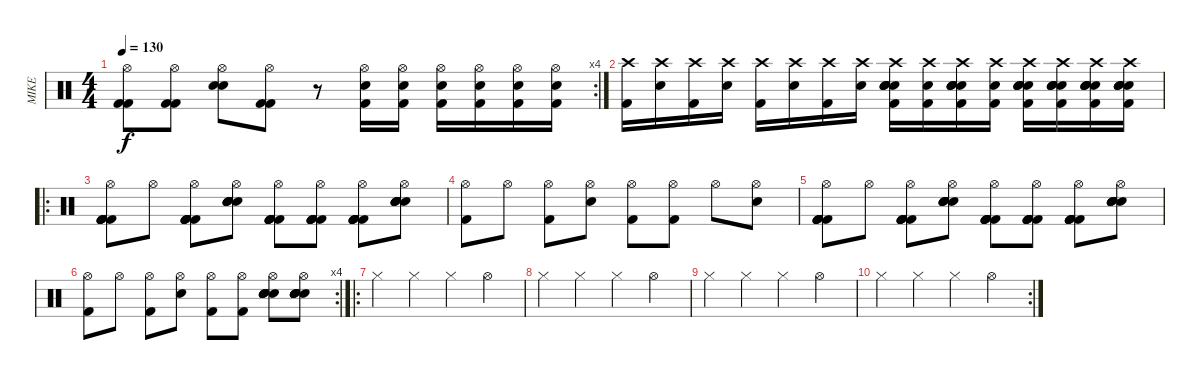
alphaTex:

\track ("MIKE" "MIKE") {instrument percussion}
\staff {score}
\articulation defaults
\rc 4
\ts (4 4)
\tempo 130
\clef neutral
\ks c
("Hi-Hat (open)" "Kick (hit) 2" "Kick (hit) 2").8{dy f} ("Hi-Hat (open)" "Kick (hit) 2" "Kick (hit) 2").8 ("Hi-Hat (open)" "Electric Snare (hit)" "Electric Snare (hit)").8 ("Hi-Hat (open)" "Kick (hit) 2" "Kick (hit) 2").8 r.8 ("Hi-Hat (open)" "Kick (hit) 2" "Electric Snare (hit)").16 ("Hi-Hat (open)" "Kick (hit) 2" "Electric Snare (hit)").16 ("Hi-Hat (open)" "Kick (hit) 2" "Electric Snare (hit)").16 ("Hi-Hat (open)" "Kick (hit) 2" "Electric Snare (hit)").16 ("Hi-Hat (open)" "Kick (hit) 2" "Electric Snare (hit)").16 ("Hi-Hat (open)" "Kick (hit) 2" "Electric Snare (hit)").16 |
("Crash high (hit)" "Kick (hit) 2").16 ("Crash high (hit)" "Electric Snare (hit)").16 ("Crash high (hit)" "Kick (hit) 2").16 ("Crash high (hit)" "Electric Snare (hit)").16 ("Crash high (hit)" "Kick (hit) 2").16 ("Crash high (hit)" "Electric Snare (hit)").16 ("Crash high (hit)" "Kick (hit) 2").16 ("Crash high (hit)" "Electric Snare (hit)").16 ("Electric Snare (hit)" "Electric Snare (hit)" "Electric Snare (hit)" "Crash high (hit)" "Kick (hit) 2" "Electric Snare (hit)").16 ("Crash high (hit)" "Kick (hit) 2" "Electric Snare (hit)").16 ("Electric Snare (hit)" "Electric Snare (hit)" "Electric Snare (hit)" "Crash high (hit)" "Kick (hit) 2" "Electric Snare (hit)").16 ("Crash high (hit)" "Kick (hit) 2" "Electric Snare (hit)").16 ("Electric Snare (hit)" "Electric Snare (hit)" "Electric Snare (hit)" "Crash high (hit)" "Kick (hit) 2" "Electric Snare (hit)").16 ("Electric Snare (hit)" "Electric Snare (hit)" "Electric Snare (hit)" "Crash high (hit)" "Kick (hit) 2" "Electric Snare (hit)").16 ("Electric Snare (hit)" "Electric Snare (hit)" "Electric Snare (hit)" "Crash high (hit)" "Kick (hit) 2" "Electric Snare (hit)").16 ("Electric Snare (hit)" "Electric Snare (hit)" "Electric Snare (hit)" "Crash high (hit)" "Kick (hit) 2" "Electric Snare (hit)").16 |
\ro
("Kick (hit) 2" "Kick (hit) 2" "Kick (hit) 2" "Kick (hit) 2" "Kick (hit) 2" "Hi-Hat (open)").8 "Hi-Hat (open)".8 ("Kick (hit) 2" "Kick (hit) 2" "Kick (hit) 2" "Kick (hit) 2" "Kick (hit) 2" "Hi-Hat (open)").8 ("Electric Snare (hit)" "Electric Snare (hit)" "Electric Snare (hit)" "Electric Snare (hit)" "Electric Snare (hit)" "Hi-Hat (open)").8 ("Kick (hit) 2" "Kick (hit) 2" "Kick (hit) 2" "Kick (hit) 2" "Kick (hit) 2" "Hi-Hat (open)").8 ("Kick (hit) 2" "Kick (hit) 2" "Kick (hit) 2" "Kick (hit) 2" "Kick (hit) 2" "Hi-Hat (open)").8 ("Kick (hit) 2" "Kick (hit) 2" "Kick (hit) 2" "Kick (hit) 2" "Kick (hit) 2" "Hi-Hat (open)").8 ("Electric Snare (hit)" "Electric Snare (hit)" "Electric Snare (hit)" "Electric Snare (hit)" "Electric Snare (hit)" "Hi-Hat (open)").8 |
("Kick (hit) 2" "Hi-Hat (open)").8 "Hi-Hat (open)".8 ("Kick (hit) 2" "Hi-Hat (open)").8 ("Electric Snare (hit)" "Hi-Hat (open)").8 ("Kick (hit) 2" "Hi-Hat (open)").8 ("Kick (hit) 2" "Hi-Hat (open)").8 "Hi-Hat (open)".8 ("Electric Snare (hit)" "Hi-Hat (open)").8 |
("Kick (hit) 2" "Kick (hit) 2" "Kick (hit) 2" "Kick (hit) 2" "Kick (hit) 2" "Hi-Hat (open)").8 "Hi-Hat (open)".8 ("Kick (hit) 2" "Kick (hit) 2" "Kick (hit) 2" "Kick (hit) 2" "Kick (hit) 2" "Hi-Hat (open)").8 ("Electric Snare (hit)" "Electric Snare (hit)" "Electric Snare (hit)" "Electric Snare (hit)" "Electric Snare (hit)" "Hi-Hat (open)").8 ("Kick (hit) 2" "Kick (hit) 2" "Kick (hit) 2" "Kick (hit) 2" "Kick (hit) 2" "Hi-Hat (open)").8 ("Kick (hit) 2" "Kick (hit) 2" "Kick (hit) 2" "Kick (hit) 2" "Kick (hit) 2" "Hi-Hat (open)").8 ("Kick (hit) 2" "Kick (hit) 2" "Kick (hit) 2" "Kick (hit) 2" "Kick (hit) 2" "Hi-Hat (open)").8 ("Electric Snare (hit)" "Electric Snare (hit)" "Electric Snare (hit)" "Electric Snare (hit)" "Electric Snare (hit)" "Hi-Hat (open)").8 |
\rc 4
("Kick (hit) 2" "Hi-Hat (open)").8 "Hi-Hat (open)".8 ("Kick (hit) 2" "Hi-Hat (open)").8 ("Electric Snare (hit)" "Hi-Hat (open)").8 ("Kick (hit) 2" "Hi-Hat (open)").8 ("Kick (hit) 2" "Hi-Hat (open)").8 ("Electric Snare (hit)" "Electric Snare (hit)" "Electric Snare (hit)" "Electric Snare (hit)" "Electric Snare (hit)" "Hi-Hat (open)").8 ("Electric Snare (hit)" "Electric Snare (hit)" "Electric Snare (hit)" "Electric Snare (hit)" "Electric Snare (hit)" "Hi-Hat (open)").8 |
\ro "Hi-Hat (closed)".4 "Hi-Hat (closed)".4 "Hi-Hat (closed)".4 "Hi-Hat (open)".4
|
"Hi-Hat (closed)".4 "Hi-Hat (closed)".4 "Hi-Hat (closed)".4 "Hi-Hat (open)".4 |
"Hi-Hat (closed)".4 "Hi-Hat (closed)".4 "Hi-Hat (closed)".4 "Hi-Hat (open)".4 |
\rc 2 "Hi-Hat (closed)".4 "Hi-Hat (closed)".4 "Hi-Hat (closed)".4 "Hi-Hat (open)".4
